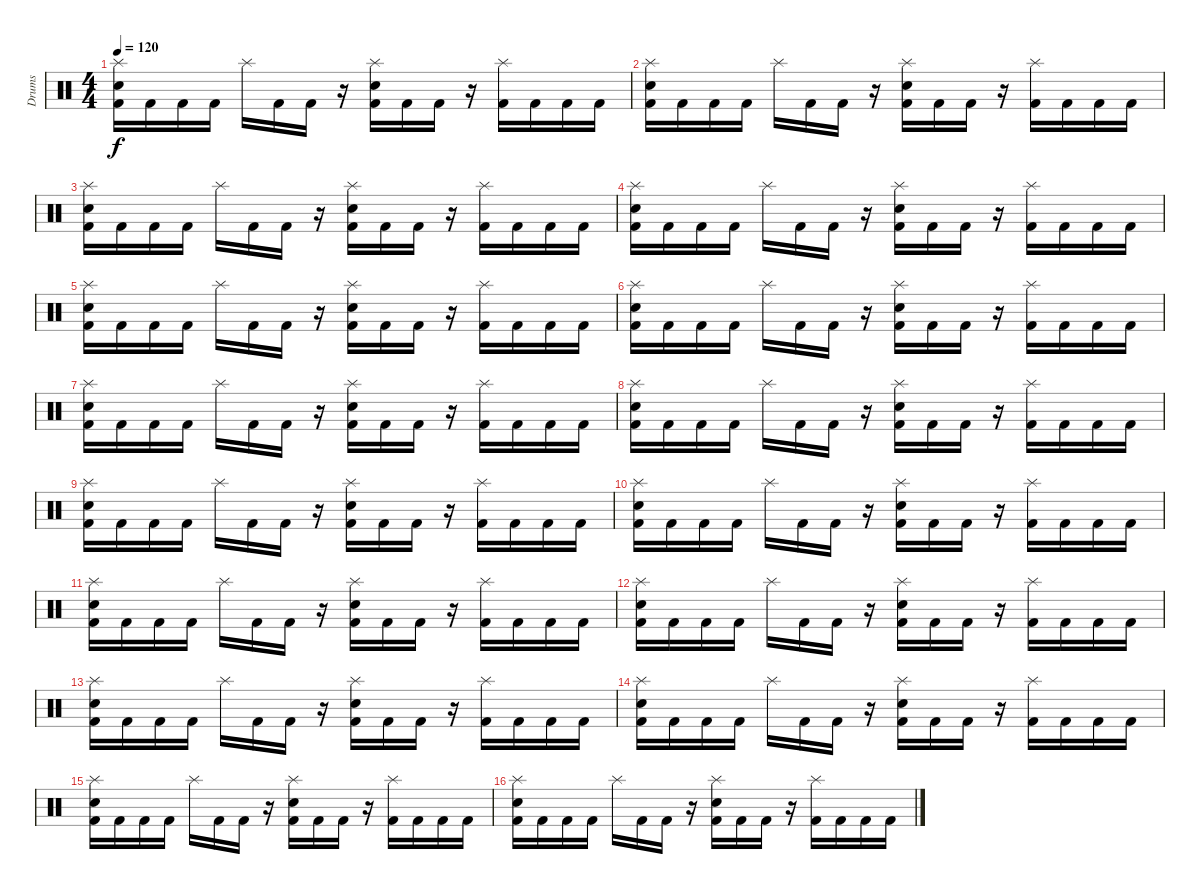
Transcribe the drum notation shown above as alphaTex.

\track ("Drums" "Drums") {instrument percussion}
\staff {score}
\articulation defaults
\ts (4 4)
\tempo 120
\clef neutral
\ks c
("Splash (hit)" "Electric Snare (hit)" "Kick (hit) 2").16{dy f} "Kick (hit) 2".16 "Kick (hit) 2".16 "Kick (hit) 2".16 "Splash (hit)".16 "Kick (hit) 2".16 "Kick (hit) 2".16 r.16 ("Splash (hit)" "Electric Snare (hit)" "Kick (hit) 2").16 "Kick (hit) 2".16 "Kick (hit) 2".16 r.16 ("Splash (hit)" "Kick (hit) 2").16 "Kick (hit) 2".16 "Kick (hit) 2".16 "Kick (hit) 2".16 |
("Splash (hit)" "Electric Snare (hit)" "Kick (hit) 2").16 "Kick (hit) 2".16 "Kick (hit) 2".16 "Kick (hit) 2".16 "Splash (hit)".16 "Kick (hit) 2".16 "Kick (hit) 2".16 r.16 ("Splash (hit)" "Electric Snare (hit)" "Kick (hit) 2").16 "Kick (hit) 2".16 "Kick (hit) 2".16 r.16 ("Splash (hit)" "Kick (hit) 2").16 "Kick (hit) 2".16 "Kick (hit) 2".16 "Kick (hit) 2".16 |
("Splash (hit)" "Electric Snare (hit)" "Kick (hit) 2").16 "Kick (hit) 2".16 "Kick (hit) 2".16 "Kick (hit) 2".16 "Splash (hit)".16 "Kick (hit) 2".16 "Kick (hit) 2".16 r.16 ("Splash (hit)" "Electric Snare (hit)" "Kick (hit) 2").16 "Kick (hit) 2".16 "Kick (hit) 2".16 r.16 ("Splash (hit)" "Kick (hit) 2").16 "Kick (hit) 2".16 "Kick (hit) 2".16 "Kick (hit) 2".16 |
("Splash (hit)" "Electric Snare (hit)" "Kick (hit) 2").16 "Kick (hit) 2".16 "Kick (hit) 2".16 "Kick (hit) 2".16 "Splash (hit)".16 "Kick (hit) 2".16 "Kick (hit) 2".16 r.16 ("Splash (hit)" "Electric Snare (hit)" "Kick (hit) 2").16 "Kick (hit) 2".16 "Kick (hit) 2".16 r.16 ("Splash (hit)" "Kick (hit) 2").16 "Kick (hit) 2".16 "Kick (hit) 2".16 "Kick (hit) 2".16 |
("Splash (hit)" "Electric Snare (hit)" "Kick (hit) 2").16 "Kick (hit) 2".16 "Kick (hit) 2".16 "Kick (hit) 2".16 "Splash (hit)".16 "Kick (hit) 2".16 "Kick (hit) 2".16 r.16 ("Splash (hit)" "Electric Snare (hit)" "Kick (hit) 2").16 "Kick (hit) 2".16 "Kick (hit) 2".16 r.16 ("Splash (hit)" "Kick (hit) 2").16 "Kick (hit) 2".16 "Kick (hit) 2".16 "Kick (hit) 2".16 |
("Splash (hit)" "Electric Snare (hit)" "Kick (hit) 2").16 "Kick (hit) 2".16 "Kick (hit) 2".16 "Kick (hit) 2".16 "Splash (hit)".16 "Kick (hit) 2".16 "Kick (hit) 2".16 r.16 ("Splash (hit)" "Electric Snare (hit)" "Kick (hit) 2").16 "Kick (hit) 2".16 "Kick (hit) 2".16 r.16 ("Splash (hit)" "Kick (hit) 2").16 "Kick (hit) 2".16 "Kick (hit) 2".16 "Kick (hit) 2".16 |
("Splash (hit)" "Electric Snare (hit)" "Kick (hit) 2").16 "Kick (hit) 2".16 "Kick (hit) 2".16 "Kick (hit) 2".16 "Splash (hit)".16 "Kick (hit) 2".16 "Kick (hit) 2".16 r.16 ("Splash (hit)" "Electric Snare (hit)" "Kick (hit) 2").16 "Kick (hit) 2".16 "Kick (hit) 2".16 r.16 ("Splash (hit)" "Kick (hit) 2").16 "Kick (hit) 2".16 "Kick (hit) 2".16 "Kick (hit) 2".16 |
("Splash (hit)" "Electric Snare (hit)" "Kick (hit) 2").16 "Kick (hit) 2".16 "Kick (hit) 2".16 "Kick (hit) 2".16 "Splash (hit)".16 "Kick (hit) 2".16 "Kick (hit) 2".16 r.16 ("Splash (hit)" "Electric Snare (hit)" "Kick (hit) 2").16 "Kick (hit) 2".16 "Kick (hit) 2".16 r.16 ("Splash (hit)" "Kick (hit) 2").16 "Kick (hit) 2".16 "Kick (hit) 2".16 "Kick (hit) 2".16 |
("Splash (hit)" "Electric Snare (hit)" "Kick (hit) 2").16 "Kick (hit) 2".16 "Kick (hit) 2".16 "Kick (hit) 2".16 "Splash (hit)".16 "Kick (hit) 2".16 "Kick (hit) 2".16 r.16 ("Splash (hit)" "Electric Snare (hit)" "Kick (hit) 2").16 "Kick (hit) 2".16 "Kick (hit) 2".16 r.16 ("Splash (hit)" "Kick (hit) 2").16 "Kick (hit) 2".16 "Kick (hit) 2".16 "Kick (hit) 2".16 |
("Splash (hit)" "Electric Snare (hit)" "Kick (hit) 2").16 "Kick (hit) 2".16 "Kick (hit) 2".16 "Kick (hit) 2".16 "Splash (hit)".16 "Kick (hit) 2".16 "Kick (hit) 2".16 r.16 ("Splash (hit)" "Electric Snare (hit)" "Kick (hit) 2").16 "Kick (hit) 2".16 "Kick (hit) 2".16 r.16 ("Splash (hit)" "Kick (hit) 2").16 "Kick (hit) 2".16 "Kick (hit) 2".16 "Kick (hit) 2".16 |
("Splash (hit)" "Electric Snare (hit)" "Kick (hit) 2").16 "Kick (hit) 2".16 "Kick (hit) 2".16 "Kick (hit) 2".16 "Splash (hit)".16 "Kick (hit) 2".16 "Kick (hit) 2".16 r.16 ("Splash (hit)" "Electric Snare (hit)" "Kick (hit) 2").16 "Kick (hit) 2".16 "Kick (hit) 2".16 r.16 ("Splash (hit)" "Kick (hit) 2").16 "Kick (hit) 2".16 "Kick (hit) 2".16 "Kick (hit) 2".16 |
("Splash (hit)" "Electric Snare (hit)" "Kick (hit) 2").16 "Kick (hit) 2".16 "Kick (hit) 2".16 "Kick (hit) 2".16 "Splash (hit)".16 "Kick (hit) 2".16 "Kick (hit) 2".16 r.16 ("Splash (hit)" "Electric Snare (hit)" "Kick (hit) 2").16 "Kick (hit) 2".16 "Kick (hit) 2".16 r.16 ("Splash (hit)" "Kick (hit) 2").16 "Kick (hit) 2".16 "Kick (hit) 2".16 "Kick (hit) 2".16 |
("Splash (hit)" "Electric Snare (hit)" "Kick (hit) 2").16 "Kick (hit) 2".16 "Kick (hit) 2".16 "Kick (hit) 2".16 "Splash (hit)".16 "Kick (hit) 2".16 "Kick (hit) 2".16 r.16 ("Splash (hit)" "Electric Snare (hit)" "Kick (hit) 2").16 "Kick (hit) 2".16 "Kick (hit) 2".16 r.16 ("Splash (hit)" "Kick (hit) 2").16 "Kick (hit) 2".16 "Kick (hit) 2".16 "Kick (hit) 2".16 |
("Splash (hit)" "Electric Snare (hit)" "Kick (hit) 2").16 "Kick (hit) 2".16 "Kick (hit) 2".16 "Kick (hit) 2".16 "Splash (hit)".16 "Kick (hit) 2".16 "Kick (hit) 2".16 r.16 ("Splash (hit)" "Electric Snare (hit)" "Kick (hit) 2").16 "Kick (hit) 2".16 "Kick (hit) 2".16 r.16 ("Splash (hit)" "Kick (hit) 2").16 "Kick (hit) 2".16 "Kick (hit) 2".16 "Kick (hit) 2".16 |
("Splash (hit)" "Electric Snare (hit)" "Kick (hit) 2").16 "Kick (hit) 2".16 "Kick (hit) 2".16 "Kick (hit) 2".16 "Splash (hit)".16 "Kick (hit) 2".16 "Kick (hit) 2".16 r.16 ("Splash (hit)" "Electric Snare (hit)" "Kick (hit) 2").16 "Kick (hit) 2".16 "Kick (hit) 2".16 r.16 ("Splash (hit)" "Kick (hit) 2").16 "Kick (hit) 2".16 "Kick (hit) 2".16 "Kick (hit) 2".16 |
("Splash (hit)" "Electric Snare (hit)" "Kick (hit) 2").16 "Kick (hit) 2".16 "Kick (hit) 2".16 "Kick (hit) 2".16 "Splash (hit)".16 "Kick (hit) 2".16 "Kick (hit) 2".16 r.16 ("Splash (hit)" "Electric Snare (hit)" "Kick (hit) 2").16 "Kick (hit) 2".16 "Kick (hit) 2".16 r.16 ("Splash (hit)" "Kick (hit) 2").16 "Kick (hit) 2".16 "Kick (hit) 2".16 "Kick (hit) 2".16
